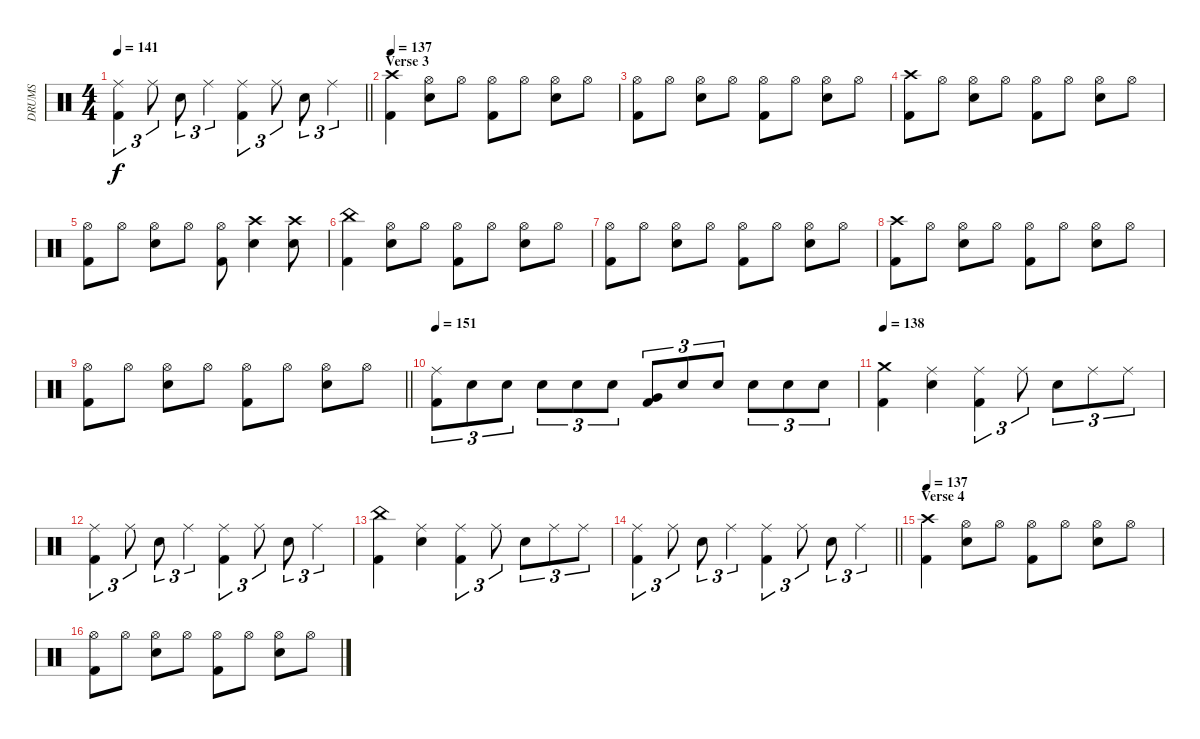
\track ("DRUMS" "DRUMS") {instrument percussion}
\staff {score}
\articulation defaults
\ts (4 4)
\tempo 141
\clef neutral
\barLineRight lightlight
\ks c
("Ride (middle)" "Kick (hit) 2").4{tu (3 2) dy f} "Ride (middle)".8{tu (3 2)} "Snare (hit) 2".8{tu (3 2)} "Ride (middle)".4{tu (3 2)} ("Ride (middle)" "Kick (hit) 2").4{tu (3 2)} "Ride (middle)".8{tu (3 2)} "Snare (hit) 2".8{tu (3 2)} "Ride (middle)".4{tu (3 2)} |
\section ("" "Verse 3")
\tempo 137
("Crash high (hit)" "Kick (hit) 2").4 ("Hi-Hat (open)" "Snare (hit) 2").8 "Hi-Hat (open)".8 ("Hi-Hat (open)" "Kick (hit) 2").8 "Hi-Hat (open)".8 ("Hi-Hat (open)" "Snare (hit) 2").8 "Hi-Hat (open)".8 |
("Hi-Hat (open)" "Kick (hit) 2").8 "Hi-Hat (open)".8 ("Hi-Hat (open)" "Snare (hit) 2").8 "Hi-Hat (open)".8 ("Hi-Hat (open)" "Kick (hit) 2").8 "Hi-Hat (open)".8 ("Hi-Hat (open)" "Snare (hit) 2").8 "Hi-Hat (open)".8 |
("Crash high (hit)" "Kick (hit) 2").8 "Hi-Hat (open)".8 ("Hi-Hat (open)" "Snare (hit) 2").8 "Hi-Hat (open)".8 ("Hi-Hat (open)" "Kick (hit) 2").8 "Hi-Hat (open)".8 ("Hi-Hat (open)" "Snare (hit) 2").8 "Hi-Hat (open)".8 |
("Hi-Hat (open)" "Kick (hit) 2").8 "Hi-Hat (open)".8 ("Hi-Hat (open)" "Snare (hit) 2").8 "Hi-Hat (open)".8 ("Hi-Hat (open)" "Kick (hit) 2").8 ("Crash high (hit)" "Snare (hit) 2").4 ("Crash high (hit)" "Snare (hit) 2").8 |
("China (hit)" "Kick (hit) 2").4 ("Hi-Hat (open)" "Snare (hit) 2").8 "Hi-Hat (open)".8 ("Hi-Hat (open)" "Kick (hit) 2").8 "Hi-Hat (open)".8 ("Hi-Hat (open)" "Snare (hit) 2").8 "Hi-Hat (open)".8 |
("Hi-Hat (open)" "Kick (hit) 2").8 "Hi-Hat (open)".8 ("Hi-Hat (open)" "Snare (hit) 2").8 "Hi-Hat (open)".8 ("Hi-Hat (open)" "Kick (hit) 2").8 "Hi-Hat (open)".8 ("Hi-Hat (open)" "Snare (hit) 2").8 "Hi-Hat (open)".8 |
("Crash high (hit)" "Kick (hit) 2").8 "Hi-Hat (open)".8 ("Hi-Hat (open)" "Snare (hit) 2").8 "Hi-Hat (open)".8 ("Hi-Hat (open)" "Kick (hit) 2").8 "Hi-Hat (open)".8 ("Hi-Hat (open)" "Snare (hit) 2").8 "Hi-Hat (open)".8 |
\barLineRight lightlight
("Hi-Hat (open)" "Kick (hit) 2").8 "Hi-Hat (open)".8 ("Hi-Hat (open)" "Snare (hit) 2").8 "Hi-Hat (open)".8 ("Hi-Hat (open)" "Kick (hit) 2").8 "Hi-Hat (open)".8 ("Hi-Hat (open)" "Snare (hit) 2").8 "Hi-Hat (open)".8 |
\tempo 151
("Ride (middle)" "Kick (hit) 2").8{tu (3 2)} "Snare (hit) 2".8{tu (3 2)} "Snare (hit) 2".8{tu (3 2)} "Snare (hit) 2".8{tu (3 2)} "Snare (hit) 2".8{tu (3 2)} "Snare (hit) 2".8{tu (3 2)} ("Very Low Tom (hit)" "Kick (hit) 2").8{tu (3 2)} "Snare (hit) 2".8{tu (3 2)} "Snare (hit) 2".8{tu (3 2)} "Snare (hit) 2".8{tu (3 2)} "Snare (hit) 2".8{tu (3 2)} "Snare (hit) 2".8{tu (3 2)} |
\tempo 138
("Crash medium (hit)" "Kick (hit) 2").4 ("Ride (middle)" "Snare (hit) 2").4 ("Ride (middle)" "Kick (hit) 2").4{tu (3 2)} "Ride (middle)".8{tu (3 2)} "Snare (hit) 2".8{tu (3 2)} "Ride (middle)".8{tu (3 2)} "Ride (middle)".8{tu (3 2)} |
("Ride (middle)" "Kick (hit) 2").4{tu (3 2)} "Ride (middle)".8{tu (3 2)} "Snare (hit) 2".8{tu (3 2)} "Ride (middle)".4{tu (3 2)} ("Ride (middle)" "Kick (hit) 2").4{tu (3 2)} "Ride (middle)".8{tu (3 2)} "Snare (hit) 2".8{tu (3 2)} "Ride (middle)".4{tu (3 2)} |
("China (hit)" "Kick (hit) 2").4 ("Ride (middle)" "Snare (hit) 2").4 ("Ride (middle)" "Kick (hit) 2").4{tu (3 2)} "Ride (middle)".8{tu (3 2)} "Snare (hit) 2".8{tu (3 2)} "Ride (middle)".8{tu (3 2)} "Ride (middle)".8{tu (3 2)} |
\barLineRight lightlight
("Ride (middle)" "Kick (hit) 2").4{tu (3 2)} "Ride (middle)".8{tu (3 2)} "Snare (hit) 2".8{tu (3 2)} "Ride (middle)".4{tu (3 2)} ("Ride (middle)" "Kick (hit) 2").4{tu (3 2)} "Ride (middle)".8{tu (3 2)} "Snare (hit) 2".8{tu (3 2)} "Ride (middle)".4{tu (3 2)} |
\section ("" "Verse 4")
\tempo 137
("Crash high (hit)" "Kick (hit) 2").4 ("Hi-Hat (open)" "Snare (hit) 2").8 "Hi-Hat (open)".8 ("Hi-Hat (open)" "Kick (hit) 2").8 "Hi-Hat (open)".8 ("Hi-Hat (open)" "Snare (hit) 2").8 "Hi-Hat (open)".8 |
("Hi-Hat (open)" "Kick (hit) 2").8 "Hi-Hat (open)".8 ("Hi-Hat (open)" "Snare (hit) 2").8 "Hi-Hat (open)".8 ("Hi-Hat (open)" "Kick (hit) 2").8 "Hi-Hat (open)".8 ("Hi-Hat (open)" "Snare (hit) 2").8 "Hi-Hat (open)".8
